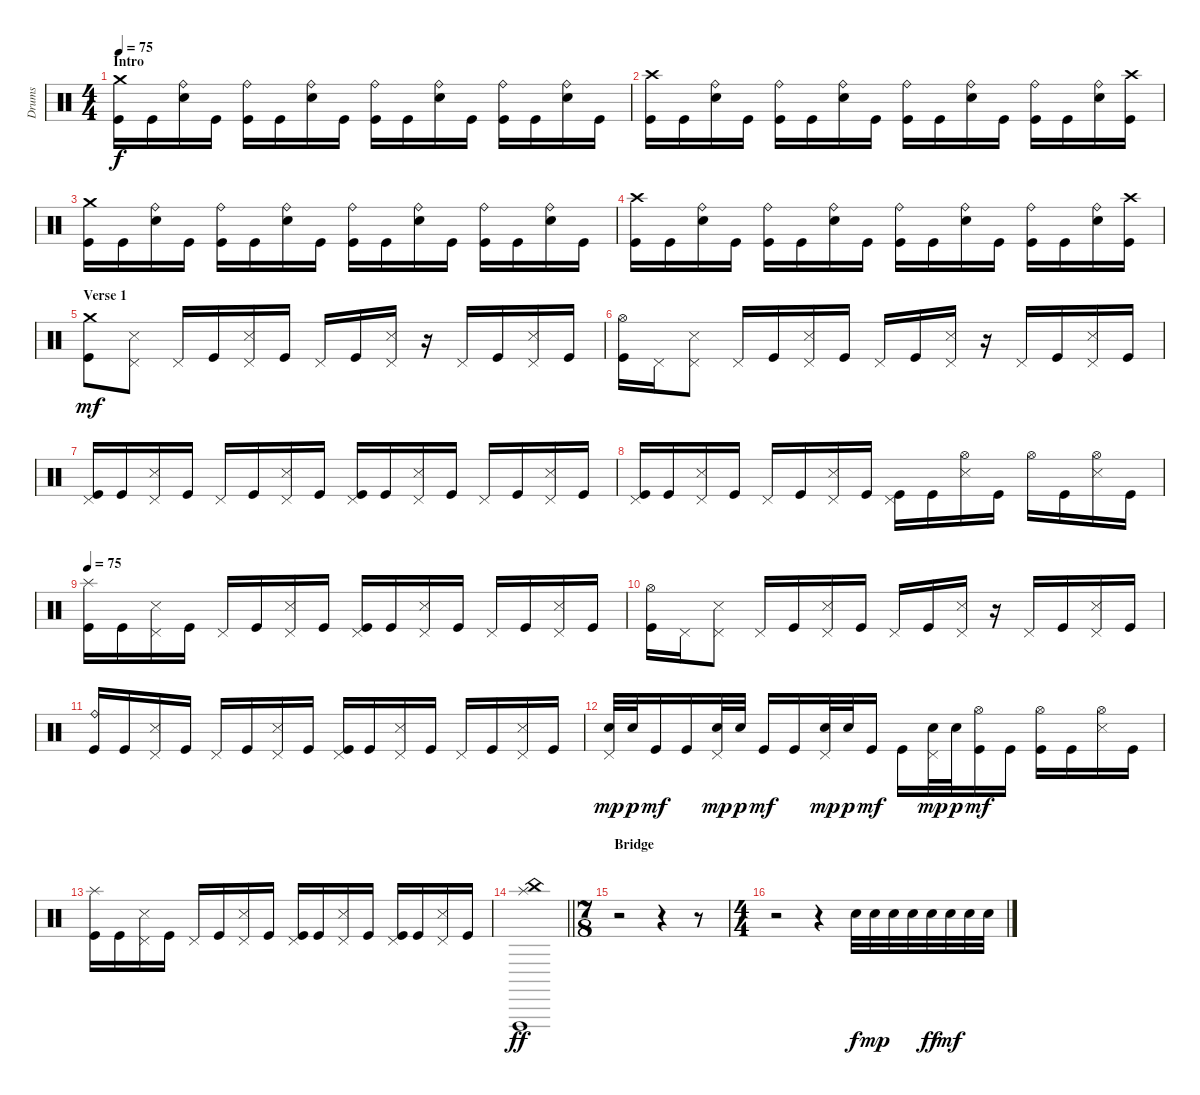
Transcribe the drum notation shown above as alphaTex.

\track ("Drums" "Drums") {instrument percussion}
\staff {score}
\articulation defaults
\ts (4 4)
\section ("" "Intro")
\tempo 75
\clef neutral
\ks c
("Crash medium (hit)" "Kick (hit)").16{dy f} "Kick (hit)".16 ("Ride (bell)" "Electric Snare (hit)").16 "Kick (hit)".16 ("Ride (bell)" "Kick (hit)").16 "Kick (hit)".16 ("Ride (bell)" "Electric Snare (hit)").16 "Kick (hit)".16 ("Ride (bell)" "Kick (hit)").16 "Kick (hit)".16 ("Ride (bell)" "Electric Snare (hit)").16 "Kick (hit)".16 ("Ride (bell)" "Kick (hit)").16 "Kick (hit)".16 ("Ride (bell)" "Electric Snare (hit)").16 "Kick (hit)".16 |
("Crash high (hit)" "Kick (hit)").16 "Kick (hit)".16 ("Ride (bell)" "Electric Snare (hit)").16 "Kick (hit)".16 ("Ride (bell)" "Kick (hit)").16 "Kick (hit)".16 ("Ride (bell)" "Electric Snare (hit)").16 "Kick (hit)".16 ("Ride (bell)" "Kick (hit)").16 "Kick (hit)".16 ("Ride (bell)" "Electric Snare (hit)").16 "Kick (hit)".16 ("Ride (bell)" "Kick (hit)").16 "Kick (hit)".16 ("Ride (bell)" "Electric Snare (hit)").16 ("Crash high (hit)" "Kick (hit)").16 |
("Crash medium (hit)" "Kick (hit)").16 "Kick (hit)".16 ("Ride (bell)" "Electric Snare (hit)").16 "Kick (hit)".16 ("Ride (bell)" "Kick (hit)").16 "Kick (hit)".16 ("Ride (bell)" "Electric Snare (hit)").16 "Kick (hit)".16 ("Ride (bell)" "Kick (hit)").16 "Kick (hit)".16 ("Ride (bell)" "Electric Snare (hit)").16 "Kick (hit)".16 ("Ride (bell)" "Kick (hit)").16 "Kick (hit)".16 ("Ride (bell)" "Electric Snare (hit)").16 "Kick (hit)".16 |
("Crash high (hit)" "Kick (hit)").16 "Kick (hit)".16 ("Ride (bell)" "Electric Snare (hit)").16 "Kick (hit)".16 ("Ride (bell)" "Kick (hit)").16 "Kick (hit)".16 ("Ride (bell)" "Electric Snare (hit)").16 "Kick (hit)".16 ("Ride (bell)" "Kick (hit)").16 "Kick (hit)".16 ("Ride (bell)" "Electric Snare (hit)").16 "Kick (hit)".16 ("Ride (bell)" "Kick (hit)").16 "Kick (hit)".16 ("Ride (bell)" "Electric Snare (hit)").16 ("Crash high (hit)" "Kick (hit)").16 |
\section ("" "Verse 1")
("Crash medium (hit)" "Kick (hit)").8{dy mf} ("Pedal Hi-Hat (hit)" "Snare (side stick) 3").8 "Pedal Hi-Hat (hit)".16 "Kick (hit)".16 ("Pedal Hi-Hat (hit)" "Snare (side stick) 3").16 "Kick (hit)".16 "Pedal Hi-Hat (hit)".16 "Kick (hit)".16 ("Pedal Hi-Hat (hit)" "Snare (side stick) 3").16 r.16 "Pedal Hi-Hat (hit)".16 "Kick (hit)".16 ("Pedal Hi-Hat (hit)" "Snare (side stick) 3").16 "Kick (hit)".16 |
("Hi-Hat (open)" "Kick (hit)").16 "Pedal Hi-Hat (hit)".16 ("Pedal Hi-Hat (hit)" "Snare (side stick) 3").8 "Pedal Hi-Hat (hit)".16 "Kick (hit)".16 ("Pedal Hi-Hat (hit)" "Snare (side stick) 3").16 "Kick (hit)".16 "Pedal Hi-Hat (hit)".16 "Kick (hit)".16 ("Pedal Hi-Hat (hit)" "Snare (side stick) 3").16 r.16 "Pedal Hi-Hat (hit)".16 "Kick (hit)".16 ("Pedal Hi-Hat (hit)" "Snare (side stick) 3").16 "Kick (hit)".16 |
("Pedal Hi-Hat (hit)" "Kick (hit)").16 "Kick (hit)".16 ("Pedal Hi-Hat (hit)" "Snare (side stick) 3").16 "Kick (hit)".16 "Pedal Hi-Hat (hit)".16 "Kick (hit)".16 ("Pedal Hi-Hat (hit)" "Snare (side stick) 3").16 "Kick (hit)".16 ("Pedal Hi-Hat (hit)" "Kick (hit)").16 "Kick (hit)".16 ("Pedal Hi-Hat (hit)" "Snare (side stick) 3").16 "Kick (hit)".16 "Pedal Hi-Hat (hit)".16 "Kick (hit)".16 ("Pedal Hi-Hat (hit)" "Snare (side stick) 3").16 "Kick (hit)".16 |
("Pedal Hi-Hat (hit)" "Kick (hit)").16 "Kick (hit)".16 ("Pedal Hi-Hat (hit)" "Snare (side stick) 3").16 "Kick (hit)".16 "Pedal Hi-Hat (hit)".16 "Kick (hit)".16 ("Pedal Hi-Hat (hit)" "Snare (side stick) 3").16 "Kick (hit)".16 ("Pedal Hi-Hat (hit)" "Kick (hit)").16 "Kick (hit)".16 ("Hi-Hat (open)" "Snare (side stick) 3").16 "Kick (hit)".16 "Hi-Hat (open)".16 "Kick (hit)".16 ("Hi-Hat (open)" "Snare (side stick) 3").16 "Kick (hit)".16 |
\tempo 75
("Splash (hit)" "Kick (hit)").16 "Kick (hit)".16 ("Pedal Hi-Hat (hit)" "Snare (side stick) 3").16 "Kick (hit)".16 "Pedal Hi-Hat (hit)".16 "Kick (hit)".16 ("Pedal Hi-Hat (hit)" "Snare (side stick) 3").16 "Kick (hit)".16 ("Pedal Hi-Hat (hit)" "Kick (hit)").16 "Kick (hit)".16 ("Pedal Hi-Hat (hit)" "Snare (side stick) 3").16 "Kick (hit)".16 "Pedal Hi-Hat (hit)".16 "Kick (hit)".16 ("Pedal Hi-Hat (hit)" "Snare (side stick) 3").16 "Kick (hit)".16 |
("Hi-Hat (open)" "Kick (hit)").16 "Pedal Hi-Hat (hit)".16 ("Pedal Hi-Hat (hit)" "Snare (side stick) 3").8 "Pedal Hi-Hat (hit)".16 "Kick (hit)".16 ("Pedal Hi-Hat (hit)" "Snare (side stick) 3").16 "Kick (hit)".16 "Pedal Hi-Hat (hit)".16 "Kick (hit)".16 ("Pedal Hi-Hat (hit)" "Snare (side stick) 3").16 r.16 "Pedal Hi-Hat (hit)".16 "Kick (hit)".16 ("Pedal Hi-Hat (hit)" "Snare (side stick) 3").16 "Kick (hit)".16 |
("Ride (bell)" "Kick (hit)").16 "Kick (hit)".16 ("Pedal Hi-Hat (hit)" "Snare (side stick) 3").16 "Kick (hit)".16 "Pedal Hi-Hat (hit)".16 "Kick (hit)".16 ("Pedal Hi-Hat (hit)" "Snare (side stick) 3").16 "Kick (hit)".16 ("Pedal Hi-Hat (hit)" "Kick (hit)").16 "Kick (hit)".16 ("Pedal Hi-Hat (hit)" "Snare (side stick) 3").16 "Kick (hit)".16 "Pedal Hi-Hat (hit)".16 "Kick (hit)".16 ("Pedal Hi-Hat (hit)" "Snare (side stick) 3").16 "Kick (hit)".16 |
("Pedal Hi-Hat (hit)" "Snare (hit) 2").32{dy mp} "Snare (hit) 2".32{dy p} "Kick (hit)".16{dy mf} "Kick (hit)".16 ("Pedal Hi-Hat (hit)" "Snare (hit) 2").32{dy mp} "Snare (hit) 2".32{dy p} "Kick (hit)".16{dy mf} "Kick (hit)".16 ("Pedal Hi-Hat (hit)" "Snare (hit) 2").32{dy mp} "Snare (hit) 2".32{dy p} "Kick (hit)".16{dy mf} "Kick (hit)".16 ("Pedal Hi-Hat (hit)" "Snare (hit) 2").32{dy mp} "Snare (hit) 2".32{dy p} ("Hi-Hat (open)" "Kick (hit)").16{dy mf} "Kick (hit)".16 ("Hi-Hat (open)" "Kick (hit)").16 "Kick (hit)".16 ("Hi-Hat (open)" "Snare (side stick) 3").16 "Kick (hit)".16 |
("Splash (hit)" "Kick (hit)").16 "Kick (hit)".16 ("Pedal Hi-Hat (hit)" "Snare (side stick) 3").16 "Kick (hit)".16 "Pedal Hi-Hat (hit)".16 "Kick (hit)".16 ("Pedal Hi-Hat (hit)" "Snare (side stick) 3").16 "Kick (hit)".16 ("Pedal Hi-Hat (hit)" "Kick (hit)").16 "Kick (hit)".16 ("Pedal Hi-Hat (hit)" "Snare (side stick) 3").16 "Kick (hit)".16 ("Pedal Hi-Hat (hit)" "Kick (hit)").16 "Kick (hit)".16 ("Pedal Hi-Hat (hit)" "Snare (side stick) 3").16 "Kick (hit)".16 |
\barLineRight lightlight
("China (hit)" "Splash (hit)" "Vibraslap (hit)").1{dy ff} |
\ts (7 8)
\section ("" "Bridge")
r.2 r.4 r.8 |
\ts (4 4)
r.2 r.4 "Electric Snare (hit)".32{dy f} "Electric Snare (hit)".32{dy mp} "Electric Snare (hit)".32 "Electric Snare (hit)".32 "Electric Snare (hit)".32{dy ff} "Electric Snare (hit)".32{dy mf} "Electric Snare (hit)".32 "Electric Snare (hit)".32
